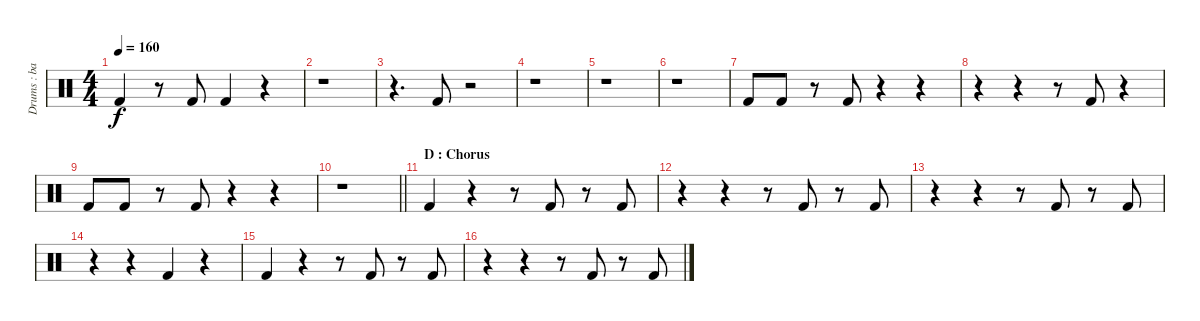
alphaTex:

\track ("Drums : bass drums" "Drums : ba") {instrument percussion}
\staff {score}
\articulation defaults
\ts (4 4)
\tempo 160
\clef neutral
\ks c "Kick (hit) 2".4{dy f}
r.8 "Kick (hit) 2".8 "Kick (hit) 2".4 r.4 |
r.1 |
r.4{d} "Kick (hit) 2".8 r.2 |
r.1 |
r.1 |
r.1 |
"Kick (hit) 2".8 "Kick (hit) 2".8 r.8 "Kick (hit) 2".8 r.4 r.4 |
r.4 r.4 r.8 "Kick (hit) 2".8 r.4 |
"Kick (hit) 2".8 "Kick (hit) 2".8 r.8 "Kick (hit) 2".8 r.4 r.4 |
\barLineRight lightlight
r.1 |
\section ("" "D : Chorus")
"Kick (hit) 2".4 r.4 r.8 "Kick (hit) 2".8 r.8 "Kick (hit) 2".8 |
r.4 r.4 r.8 "Kick (hit) 2".8 r.8 "Kick (hit) 2".8 |
r.4 r.4 r.8 "Kick (hit) 2".8 r.8 "Kick (hit) 2".8 |
r.4 r.4 "Kick (hit) 2".4 r.4 |
"Kick (hit) 2".4 r.4 r.8 "Kick (hit) 2".8 r.8 "Kick (hit) 2".8 |
r.4 r.4 r.8 "Kick (hit) 2".8 r.8 "Kick (hit) 2".8
